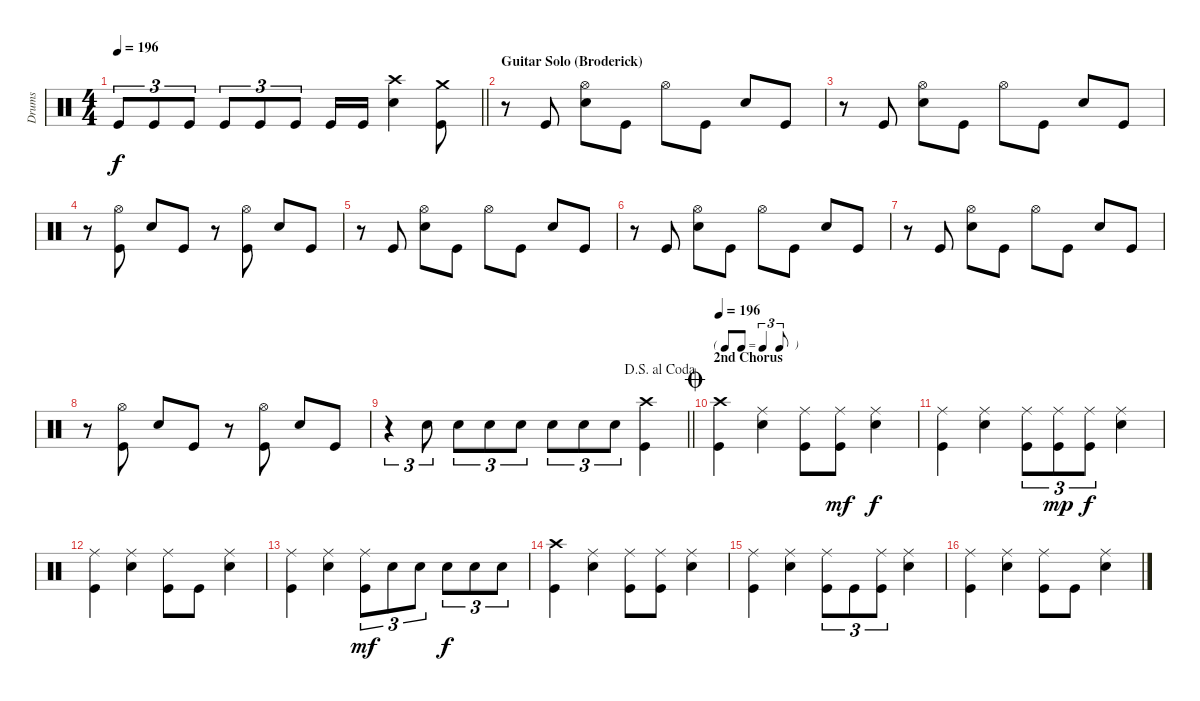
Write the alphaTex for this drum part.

\track ("Drums" "Drums") {instrument percussion}
\staff {score}
\articulation defaults
\ts (4 4)
\tempo 196
\clef neutral
\barLineRight lightlight
\ks c "Kick (hit)".8{tu (3 2) dy f} "Kick (hit)".8{tu (3 2)} "Kick (hit)".8{tu (3 2)} "Kick (hit)".8{tu (3 2)} "Kick (hit)".8{tu (3 2)} "Kick (hit)".8{tu (3 2)} "Kick (hit)".16 "Kick (hit)".16
("Crash high (hit)" "Snare (hit) 2").4 ("Crash medium (hit)" "Kick (hit)").8 |
\section ("" "Guitar Solo (Broderick)")
r.8 "Kick (hit)".8 ("Hi-Hat (open)" "Snare (hit) 2").8 "Kick (hit)".8 "Hi-Hat (open)".8 "Kick (hit)".8 "Snare (hit) 2".8 "Kick (hit)".8 |
r.8 "Kick (hit)".8 ("Hi-Hat (open)" "Snare (hit) 2").8 "Kick (hit)".8 "Hi-Hat (open)".8 "Kick (hit)".8 "Snare (hit) 2".8 "Kick (hit)".8 |
r.8 ("Hi-Hat (open)" "Kick (hit)").8 "Snare (hit) 2".8 "Kick (hit)".8 r.8 ("Hi-Hat (open)" "Kick (hit)").8 "Snare (hit) 2".8 "Kick (hit)".8 |
r.8 "Kick (hit)".8 ("Hi-Hat (open)" "Snare (hit) 2").8 "Kick (hit)".8 "Hi-Hat (open)".8 "Kick (hit)".8 "Snare (hit) 2".8 "Kick (hit)".8 |
r.8 "Kick (hit)".8 ("Hi-Hat (open)" "Snare (hit) 2").8 "Kick (hit)".8 "Hi-Hat (open)".8 "Kick (hit)".8 "Snare (hit) 2".8 "Kick (hit)".8 |
r.8 "Kick (hit)".8 ("Hi-Hat (open)" "Snare (hit) 2").8 "Kick (hit)".8 "Hi-Hat (open)".8 "Kick (hit)".8 "Snare (hit) 2".8 "Kick (hit)".8 |
r.8 ("Hi-Hat (open)" "Kick (hit)").8 "Snare (hit) 2".8 "Kick (hit)".8 r.8 ("Hi-Hat (open)" "Kick (hit)").8 "Snare (hit) 2".8 "Kick (hit)".8 |
\jump dalsegnoalcoda
\barLineRight lightlight
r.4{tu (3 2)} "Snare (hit) 2".8{tu (3 2)} "Snare (hit) 2".8{tu (3 2)} "Snare (hit) 2".8{tu (3 2)} "Snare (hit) 2".8{tu (3 2)} "Snare (hit) 2".8{tu (3 2)} "Snare (hit) 2".8{tu (3 2)} "Snare (hit) 2".8{tu (3 2)} ("Crash high (hit)" "Kick (hit)").4 |
\tf triplet8th
\section ("" "2nd Chorus")
\jump coda
\tempo 196
("Crash high (hit)" "Kick (hit)").4 ("Ride (middle)" "Snare (hit) 2").4 ("Ride (middle)" "Kick (hit)").8 ("Ride (middle)" "Kick (hit)").8{dy mf} ("Ride (middle)" "Snare (hit) 2").4{dy f} |
("Ride (middle)" "Kick (hit)").4 ("Ride (middle)" "Snare (hit) 2").4 ("Ride (middle)" "Kick (hit)").8{tu (3 2)} ("Ride (middle)" "Kick (hit)").8{tu (3 2) dy mp} ("Ride (middle)" "Kick (hit)").8{tu (3 2) dy f} ("Ride (middle)" "Snare (hit) 2").4 |
("Ride (middle)" "Kick (hit)").4 ("Ride (middle)" "Snare (hit) 2").4 ("Ride (middle)" "Kick (hit)").8 "Kick (hit)".8 ("Ride (middle)" "Snare (hit) 2").4 |
("Ride (middle)" "Kick (hit)").4 ("Ride (middle)" "Snare (hit) 2").4 ("Ride (middle)" "Kick (hit)").8{tu (3 2) dy mf} "Snare (hit) 2".8{tu (3 2)} "Snare (hit) 2".8{tu (3 2)} "Snare (hit) 2".8{tu (3 2) dy f} "Snare (hit) 2".8{tu (3 2)} "Snare (hit) 2".8{tu (3 2)} |
("Crash high (hit)" "Kick (hit)").4 ("Ride (middle)" "Snare (hit) 2").4 ("Ride (middle)" "Kick (hit)").8 ("Ride (middle)" "Kick (hit)").8 ("Ride (middle)" "Snare (hit) 2").4 |
("Ride (middle)" "Kick (hit)").4 ("Ride (middle)" "Snare (hit) 2").4 ("Ride (middle)" "Kick (hit)").8{tu (3 2)} "Kick (hit)".8{tu (3 2)} ("Ride (middle)" "Kick (hit)").8{tu (3 2)} ("Ride (middle)" "Snare (hit) 2").4 |
("Ride (middle)" "Kick (hit)").4 ("Ride (middle)" "Snare (hit) 2").4 ("Ride (middle)" "Kick (hit)").8 "Kick (hit)".8 ("Ride (middle)" "Snare (hit) 2").4
